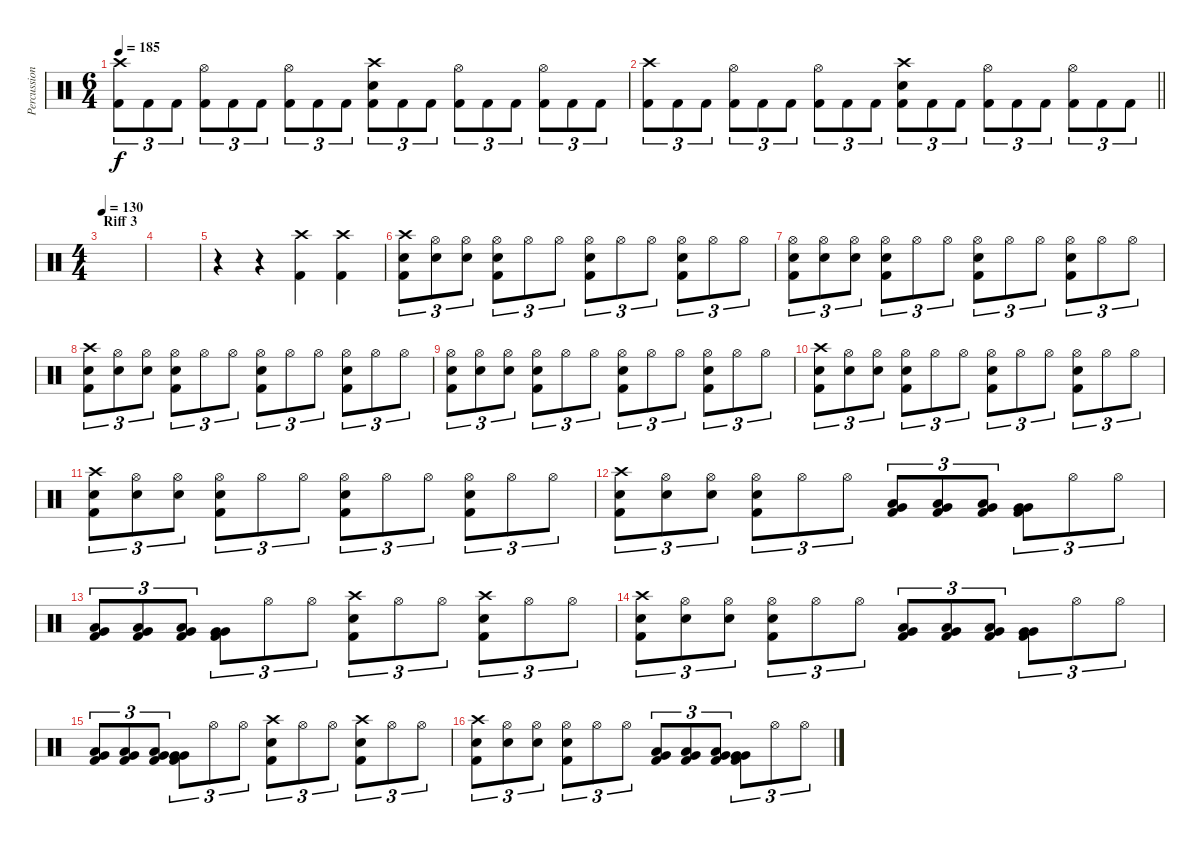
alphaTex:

\track ("Percussion" "Percussion") {instrument percussion}
\staff {score}
\articulation defaults
\ts (6 4)
\tempo 185
\clef neutral
\ks c
("Crash high (hit)" "Kick (hit) 2").8{tu (3 2) dy f} "Kick (hit) 2".8{tu (3 2)} "Kick (hit) 2".8{tu (3 2)} ("Hi-Hat (open)" "Kick (hit) 2").8{tu (3 2)} "Kick (hit) 2".8{tu (3 2)} "Kick (hit) 2".8{tu (3 2)} ("Hi-Hat (open)" "Kick (hit) 2").8{tu (3 2)} "Kick (hit) 2".8{tu (3 2)} "Kick (hit) 2".8{tu (3 2)} ("Crash high (hit)" "Snare (hit) 2" "Kick (hit) 2").8{tu (3 2)} "Kick (hit) 2".8{tu (3 2)} "Kick (hit) 2".8{tu (3 2)} ("Hi-Hat (open)" "Kick (hit) 2").8{tu (3 2)} "Kick (hit) 2".8{tu (3 2)} "Kick (hit) 2".8{tu (3 2)} ("Hi-Hat (open)" "Kick (hit) 2").8{tu (3 2)} "Kick (hit) 2".8{tu (3 2)} "Kick (hit) 2".8{tu (3 2)} |
\barLineRight lightlight
("Crash high (hit)" "Kick (hit) 2").8{tu (3 2)} "Kick (hit) 2".8{tu (3 2)} "Kick (hit) 2".8{tu (3 2)} ("Hi-Hat (open)" "Kick (hit) 2").8{tu (3 2)} "Kick (hit) 2".8{tu (3 2)} "Kick (hit) 2".8{tu (3 2)} ("Hi-Hat (open)" "Kick (hit) 2").8{tu (3 2)} "Kick (hit) 2".8{tu (3 2)} "Kick (hit) 2".8{tu (3 2)} ("Crash high (hit)" "Snare (hit) 2" "Kick (hit) 2").8{tu (3 2)} "Kick (hit) 2".8{tu (3 2)} "Kick (hit) 2".8{tu (3 2)} ("Hi-Hat (open)" "Kick (hit) 2").8{tu (3 2)} "Kick (hit) 2".8{tu (3 2)} "Kick (hit) 2".8{tu (3 2)} ("Hi-Hat (open)" "Kick (hit) 2").8{tu (3 2)} "Kick (hit) 2".8{tu (3 2)} "Kick (hit) 2".8{tu (3 2)} |
\ts (4 4)
\section ("" "Riff 3")
\tempo 130
|
|
r.4 r.4 ("Crash high (hit)" "Kick (hit) 2").4 ("Crash high (hit)" "Kick (hit) 2").4 |
("Crash high (hit)" "Snare (hit) 2" "Kick (hit) 2").8{tu (3 2)} ("Hi-Hat (open)" "Snare (hit) 2").8{tu (3 2)} ("Hi-Hat (open)" "Snare (hit) 2").8{tu (3 2)} ("Hi-Hat (open)" "Snare (hit) 2" "Kick (hit) 2").8{tu (3 2)} "Hi-Hat (open)".8{tu (3 2)} "Hi-Hat (open)".8{tu (3 2)} ("Hi-Hat (open)" "Snare (hit) 2" "Kick (hit) 2").8{tu (3 2)} "Hi-Hat (open)".8{tu (3 2)} "Hi-Hat (open)".8{tu (3 2)} ("Hi-Hat (open)" "Snare (hit) 2" "Kick (hit) 2").8{tu (3 2)} "Hi-Hat (open)".8{tu (3 2)} "Hi-Hat (open)".8{tu (3 2)} |
("Hi-Hat (open)" "Snare (hit) 2" "Kick (hit) 2").8{tu (3 2)} ("Hi-Hat (open)" "Snare (hit) 2").8{tu (3 2)} ("Hi-Hat (open)" "Snare (hit) 2").8{tu (3 2)} ("Hi-Hat (open)" "Snare (hit) 2" "Kick (hit) 2").8{tu (3 2)} "Hi-Hat (open)".8{tu (3 2)} "Hi-Hat (open)".8{tu (3 2)} ("Hi-Hat (open)" "Snare (hit) 2" "Kick (hit) 2").8{tu (3 2)} "Hi-Hat (open)".8{tu (3 2)} "Hi-Hat (open)".8{tu (3 2)} ("Hi-Hat (open)" "Snare (hit) 2" "Kick (hit) 2").8{tu (3 2)} "Hi-Hat (open)".8{tu (3 2)} "Hi-Hat (open)".8{tu (3 2)} |
("Crash high (hit)" "Snare (hit) 2" "Kick (hit) 2").8{tu (3 2)} ("Hi-Hat (open)" "Snare (hit) 2").8{tu (3 2)} ("Hi-Hat (open)" "Snare (hit) 2").8{tu (3 2)} ("Hi-Hat (open)" "Snare (hit) 2" "Kick (hit) 2").8{tu (3 2)} "Hi-Hat (open)".8{tu (3 2)} "Hi-Hat (open)".8{tu (3 2)} ("Hi-Hat (open)" "Snare (hit) 2" "Kick (hit) 2").8{tu (3 2)} "Hi-Hat (open)".8{tu (3 2)} "Hi-Hat (open)".8{tu (3 2)} ("Hi-Hat (open)" "Snare (hit) 2" "Kick (hit) 2").8{tu (3 2)} "Hi-Hat (open)".8{tu (3 2)} "Hi-Hat (open)".8{tu (3 2)} |
("Hi-Hat (open)" "Snare (hit) 2" "Kick (hit) 2").8{tu (3 2)} ("Hi-Hat (open)" "Snare (hit) 2").8{tu (3 2)} ("Hi-Hat (open)" "Snare (hit) 2").8{tu (3 2)} ("Hi-Hat (open)" "Snare (hit) 2" "Kick (hit) 2").8{tu (3 2)} "Hi-Hat (open)".8{tu (3 2)} "Hi-Hat (open)".8{tu (3 2)} ("Hi-Hat (open)" "Snare (hit) 2" "Kick (hit) 2").8{tu (3 2)} "Hi-Hat (open)".8{tu (3 2)} "Hi-Hat (open)".8{tu (3 2)} ("Hi-Hat (open)" "Snare (hit) 2" "Kick (hit) 2").8{tu (3 2)} "Hi-Hat (open)".8{tu (3 2)} "Hi-Hat (open)".8{tu (3 2)} |
("Crash high (hit)" "Snare (hit) 2" "Kick (hit) 2").8{tu (3 2)} ("Hi-Hat (open)" "Snare (hit) 2").8{tu (3 2)} ("Hi-Hat (open)" "Snare (hit) 2").8{tu (3 2)} ("Hi-Hat (open)" "Snare (hit) 2" "Kick (hit) 2").8{tu (3 2)} "Hi-Hat (open)".8{tu (3 2)} "Hi-Hat (open)".8{tu (3 2)} ("Hi-Hat (open)" "Snare (hit) 2" "Kick (hit) 2").8{tu (3 2)} "Hi-Hat (open)".8{tu (3 2)} "Hi-Hat (open)".8{tu (3 2)} ("Hi-Hat (open)" "Snare (hit) 2" "Kick (hit) 2").8{tu (3 2)} "Hi-Hat (open)".8{tu (3 2)} "Hi-Hat (open)".8{tu (3 2)} |
("Crash high (hit)" "Snare (hit) 2" "Kick (hit) 2").8{tu (3 2)} ("Hi-Hat (open)" "Snare (hit) 2").8{tu (3 2)} ("Hi-Hat (open)" "Snare (hit) 2").8{tu (3 2)} ("Hi-Hat (open)" "Snare (hit) 2" "Kick (hit) 2").8{tu (3 2)} "Hi-Hat (open)".8{tu (3 2)} "Hi-Hat (open)".8{tu (3 2)} ("Hi-Hat (open)" "Snare (hit) 2" "Kick (hit) 2").8{tu (3 2)} "Hi-Hat (open)".8{tu (3 2)} "Hi-Hat (open)".8{tu (3 2)} ("Hi-Hat (open)" "Snare (hit) 2" "Kick (hit) 2").8{tu (3 2)} "Hi-Hat (open)".8{tu (3 2)} "Hi-Hat (open)".8{tu (3 2)} |
("Crash high (hit)" "Snare (hit) 2" "Kick (hit) 2").8{tu (3 2)} ("Hi-Hat (open)" "Snare (hit) 2").8{tu (3 2)} ("Hi-Hat (open)" "Snare (hit) 2").8{tu (3 2)} ("Hi-Hat (open)" "Snare (hit) 2" "Kick (hit) 2").8{tu (3 2)} "Hi-Hat (open)".8{tu (3 2)} "Hi-Hat (open)".8{tu (3 2)} ("Kick (hit) 2" "Very Low Tom (hit)" "Low Tom (hit)").8{tu (3 2)} ("Kick (hit) 2" "Very Low Tom (hit)" "Low Tom (hit)").8{tu (3 2)} ("Kick (hit) 2" "Very Low Tom (hit)" "Low Tom (hit)").8{tu (3 2)} ("Kick (hit) 2" "Very Low Tom (hit)" "Very Low Tom (hit)").8{tu (3 2)} "Hi-Hat (open)".8{tu (3 2)} "Hi-Hat (open)".8{tu (3 2)} |
("Kick (hit) 2" "Very Low Tom (hit)" "Low Tom (hit)").8{tu (3 2)} ("Kick (hit) 2" "Very Low Tom (hit)" "Low Tom (hit)").8{tu (3 2)} ("Kick (hit) 2" "Very Low Tom (hit)" "Low Tom (hit)").8{tu (3 2)} ("Kick (hit) 2" "Very Low Tom (hit)" "Very Low Tom (hit)").8{tu (3 2)} "Hi-Hat (open)".8{tu (3 2)} "Hi-Hat (open)".8{tu (3 2)} ("Crash high (hit)" "Snare (hit) 2" "Kick (hit) 2").8{tu (3 2)} "Hi-Hat (open)".8{tu (3 2)} "Hi-Hat (open)".8{tu (3 2)} ("Crash high (hit)" "Snare (hit) 2" "Kick (hit) 2").8{tu (3 2)} "Hi-Hat (open)".8{tu (3 2)} "Hi-Hat (open)".8{tu (3 2)} |
("Crash high (hit)" "Snare (hit) 2" "Kick (hit) 2").8{tu (3 2)} ("Hi-Hat (open)" "Snare (hit) 2").8{tu (3 2)} ("Hi-Hat (open)" "Snare (hit) 2").8{tu (3 2)} ("Hi-Hat (open)" "Snare (hit) 2" "Kick (hit) 2").8{tu (3 2)} "Hi-Hat (open)".8{tu (3 2)} "Hi-Hat (open)".8{tu (3 2)} ("Kick (hit) 2" "Very Low Tom (hit)" "Low Tom (hit)").8{tu (3 2)} ("Kick (hit) 2" "Very Low Tom (hit)" "Low Tom (hit)").8{tu (3 2)} ("Kick (hit) 2" "Very Low Tom (hit)" "Low Tom (hit)").8{tu (3 2)} ("Kick (hit) 2" "Very Low Tom (hit)" "Very Low Tom (hit)").8{tu (3 2)} "Hi-Hat (open)".8{tu (3 2)} "Hi-Hat (open)".8{tu (3 2)} |
("Kick (hit) 2" "Very Low Tom (hit)" "Low Tom (hit)").8{tu (3 2)} ("Kick (hit) 2" "Very Low Tom (hit)" "Low Tom (hit)").8{tu (3 2)} ("Kick (hit) 2" "Very Low Tom (hit)" "Low Tom (hit)").8{tu (3 2)} ("Kick (hit) 2" "Very Low Tom (hit)" "Very Low Tom (hit)").8{tu (3 2)} "Hi-Hat (open)".8{tu (3 2)} "Hi-Hat (open)".8{tu (3 2)} ("Crash high (hit)" "Snare (hit) 2" "Kick (hit) 2").8{tu (3 2)} "Hi-Hat (open)".8{tu (3 2)} "Hi-Hat (open)".8{tu (3 2)} ("Crash high (hit)" "Snare (hit) 2" "Kick (hit) 2").8{tu (3 2)} "Hi-Hat (open)".8{tu (3 2)} "Hi-Hat (open)".8{tu (3 2)} |
("Crash high (hit)" "Snare (hit) 2" "Kick (hit) 2").8{tu (3 2)} ("Hi-Hat (open)" "Snare (hit) 2").8{tu (3 2)} ("Hi-Hat (open)" "Snare (hit) 2").8{tu (3 2)} ("Hi-Hat (open)" "Snare (hit) 2" "Kick (hit) 2").8{tu (3 2)} "Hi-Hat (open)".8{tu (3 2)} "Hi-Hat (open)".8{tu (3 2)} ("Kick (hit) 2" "Very Low Tom (hit)" "Low Tom (hit)").8{tu (3 2)} ("Kick (hit) 2" "Very Low Tom (hit)" "Low Tom (hit)").8{tu (3 2)} ("Kick (hit) 2" "Very Low Tom (hit)" "Low Tom (hit)").8{tu (3 2)} ("Kick (hit) 2" "Very Low Tom (hit)" "Very Low Tom (hit)").8{tu (3 2)} "Hi-Hat (open)".8{tu (3 2)} "Hi-Hat (open)".8{tu (3 2)}
